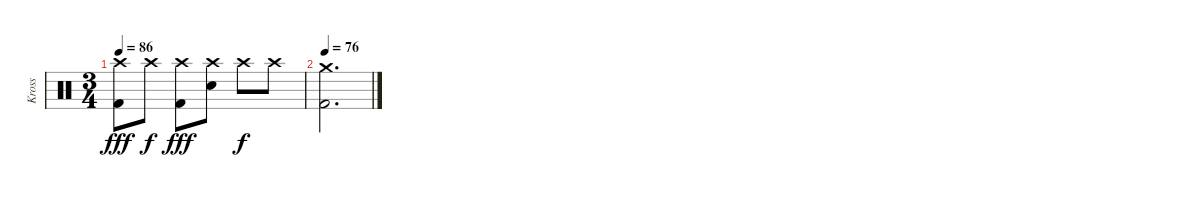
\track ("Kross" "Kross") {instrument percussion}
\staff {score}
\articulation defaults
\ts (3 4)
\tempo 86
\clef neutral
\ks c
("Crash high (hit)" "Kick (hit) 2").8{dy fff} "Crash high (hit)".8{dy f} ("Crash high (hit)" "Kick (hit) 2").8{dy fff} ("Crash high (hit)" "Electric Snare (hit)").8 "Crash high (hit)".8{dy f} "Crash high (hit)".8 |
\tempo 76
("Crash medium (hit)" "Kick (hit) 2").2{d}
